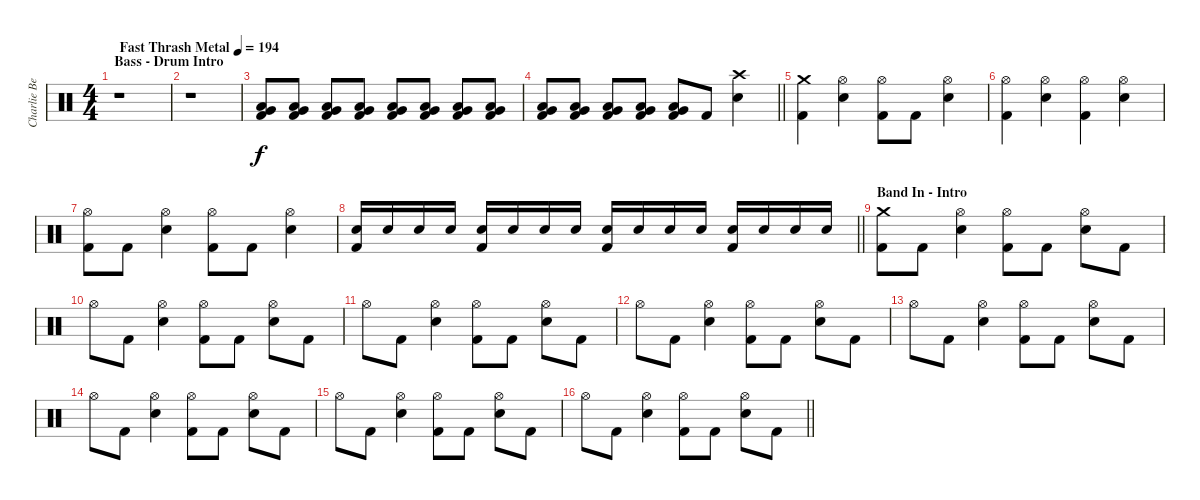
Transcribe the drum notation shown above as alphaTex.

\track ("Charlie Benate " "Charlie Be") {instrument percussion}
\staff {score}
\articulation defaults
\ts (4 4)
\section ("" "Bass - Drum Intro")
\tempo (194 "Fast Thrash Metal")
\clef neutral
\ks c
r.1{dy f} |
r.1 |
("Low Tom (hit)" "Very Low Tom (hit)" "Kick (hit) 2").8 ("Low Tom (hit)" "Very Low Tom (hit)" "Kick (hit) 2").8 ("Low Tom (hit)" "Very Low Tom (hit)" "Kick (hit) 2").8 ("Low Tom (hit)" "Very Low Tom (hit)" "Kick (hit) 2").8 ("Low Tom (hit)" "Very Low Tom (hit)" "Kick (hit) 2").8 ("Low Tom (hit)" "Very Low Tom (hit)" "Kick (hit) 2").8 ("Low Tom (hit)" "Very Low Tom (hit)" "Kick (hit) 2").8 ("Low Tom (hit)" "Very Low Tom (hit)" "Kick (hit) 2").8 |
\barLineRight lightlight
("Low Tom (hit)" "Very Low Tom (hit)" "Kick (hit) 2").8 ("Low Tom (hit)" "Very Low Tom (hit)" "Kick (hit) 2").8 ("Low Tom (hit)" "Very Low Tom (hit)" "Kick (hit) 2").8 ("Low Tom (hit)" "Very Low Tom (hit)" "Kick (hit) 2").8 ("Low Tom (hit)" "Very Low Tom (hit)" "Kick (hit) 2").8 "Kick (hit) 2".8 ("Crash high (hit)" "Snare (hit) 2").4 |
("Crash medium (hit)" "Kick (hit) 2").4 ("Hi-Hat (open)" "Snare (hit) 2").4 ("Hi-Hat (open)" "Kick (hit) 2").8 "Kick (hit) 2".8 ("Hi-Hat (open)" "Snare (hit) 2").4 |
("Hi-Hat (open)" "Kick (hit) 2").4 ("Hi-Hat (open)" "Snare (hit) 2").4 ("Hi-Hat (open)" "Kick (hit) 2").4 ("Hi-Hat (open)" "Snare (hit) 2").4 |
("Hi-Hat (open)" "Kick (hit) 2").8 "Kick (hit) 2".8 ("Hi-Hat (open)" "Snare (hit) 2").4 ("Hi-Hat (open)" "Kick (hit) 2").8 "Kick (hit) 2".8 ("Hi-Hat (open)" "Snare (hit) 2").4 |
\barLineRight lightlight
("Snare (hit) 2" "Kick (hit) 2").16 "Snare (hit) 2".16 "Snare (hit) 2".16 "Snare (hit) 2".16 ("Snare (hit) 2" "Kick (hit) 2").16 "Snare (hit) 2".16 "Snare (hit) 2".16 "Snare (hit) 2".16 ("Snare (hit) 2" "Kick (hit) 2").16 "Snare (hit) 2".16 "Snare (hit) 2".16 "Snare (hit) 2".16 ("Snare (hit) 2" "Kick (hit) 2").16 "Snare (hit) 2".16 "Snare (hit) 2".16 "Snare (hit) 2".16 |
\section ("" "Band In - Intro")
("Crash medium (hit)" "Kick (hit) 2").8 "Kick (hit) 2".8 ("Hi-Hat (open)" "Snare (hit) 2").4 ("Hi-Hat (open)" "Kick (hit) 2").8 "Kick (hit) 2".8 ("Hi-Hat (open)" "Snare (hit) 2").8 "Kick (hit) 2".8 |
"Hi-Hat (open)".8 "Kick (hit) 2".8 ("Hi-Hat (open)" "Snare (hit) 2").4 ("Hi-Hat (open)" "Kick (hit) 2").8 "Kick (hit) 2".8 ("Hi-Hat (open)" "Snare (hit) 2").8 "Kick (hit) 2".8 |
"Hi-Hat (open)".8 "Kick (hit) 2".8 ("Hi-Hat (open)" "Snare (hit) 2").4 ("Hi-Hat (open)" "Kick (hit) 2").8 "Kick (hit) 2".8 ("Hi-Hat (open)" "Snare (hit) 2").8 "Kick (hit) 2".8 |
"Hi-Hat (open)".8 "Kick (hit) 2".8 ("Hi-Hat (open)" "Snare (hit) 2").4 ("Hi-Hat (open)" "Kick (hit) 2").8 "Kick (hit) 2".8 ("Hi-Hat (open)" "Snare (hit) 2").8 "Kick (hit) 2".8 |
"Hi-Hat (open)".8 "Kick (hit) 2".8 ("Hi-Hat (open)" "Snare (hit) 2").4 ("Hi-Hat (open)" "Kick (hit) 2").8 "Kick (hit) 2".8 ("Hi-Hat (open)" "Snare (hit) 2").8 "Kick (hit) 2".8 |
"Hi-Hat (open)".8 "Kick (hit) 2".8 ("Hi-Hat (open)" "Snare (hit) 2").4 ("Hi-Hat (open)" "Kick (hit) 2").8 "Kick (hit) 2".8 ("Hi-Hat (open)" "Snare (hit) 2").8 "Kick (hit) 2".8 |
"Hi-Hat (open)".8 "Kick (hit) 2".8 ("Hi-Hat (open)" "Snare (hit) 2").4 ("Hi-Hat (open)" "Kick (hit) 2").8 "Kick (hit) 2".8 ("Hi-Hat (open)" "Snare (hit) 2").8 "Kick (hit) 2".8 |
\barLineRight lightlight "Hi-Hat (open)".8 "Kick (hit) 2".8
("Hi-Hat (open)" "Snare (hit) 2").4 ("Hi-Hat (open)" "Kick (hit) 2").8 "Kick (hit) 2".8 ("Hi-Hat (open)" "Snare (hit) 2").8 "Kick (hit) 2".8
